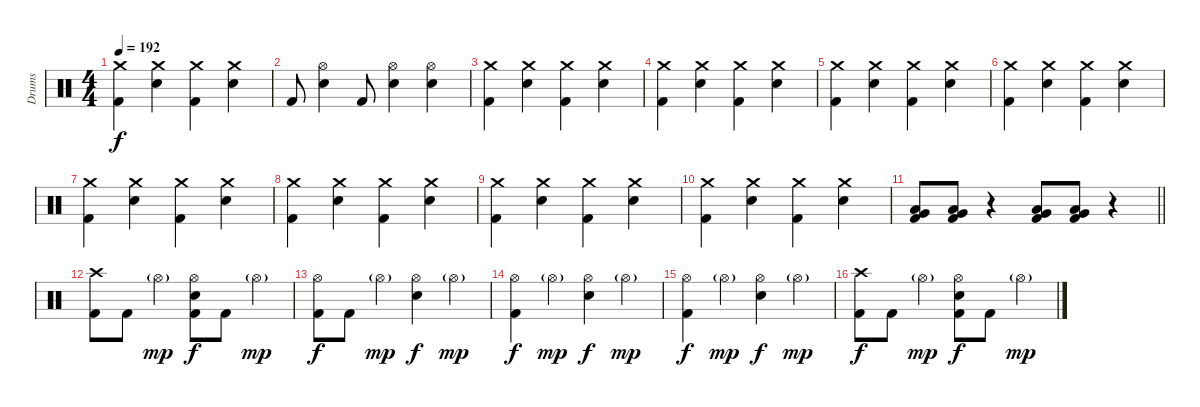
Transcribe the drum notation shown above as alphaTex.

\track ("Drums" "Drums") {instrument percussion}
\staff {score}
\articulation defaults
\ts (4 4)
\tempo 192
\clef neutral
\ks c
("Crash medium (hit)" "Kick (hit) 2").4{dy f} ("Crash medium (hit)" "Electric Snare (hit)").4 ("Crash medium (hit)" "Kick (hit) 2").4 ("Crash medium (hit)" "Electric Snare (hit)").4 |
"Kick (hit) 2".8 ("Hi-Hat (open)" "Electric Snare (hit)").4 "Kick (hit) 2".8 ("Hi-Hat (open)" "Electric Snare (hit)").4 ("Hi-Hat (open)" "Electric Snare (hit)").4 |
("Crash medium (hit)" "Kick (hit) 2").4 ("Crash medium (hit)" "Electric Snare (hit)").4 ("Crash medium (hit)" "Kick (hit) 2").4 ("Crash medium (hit)" "Electric Snare (hit)").4 |
("Crash medium (hit)" "Kick (hit) 2").4 ("Crash medium (hit)" "Electric Snare (hit)").4 ("Crash medium (hit)" "Kick (hit) 2").4 ("Crash medium (hit)" "Electric Snare (hit)").4 |
("Crash medium (hit)" "Kick (hit) 2").4 ("Crash medium (hit)" "Electric Snare (hit)").4 ("Crash medium (hit)" "Kick (hit) 2").4 ("Crash medium (hit)" "Electric Snare (hit)").4 |
("Crash medium (hit)" "Kick (hit) 2").4 ("Crash medium (hit)" "Electric Snare (hit)").4 ("Crash medium (hit)" "Kick (hit) 2").4 ("Crash medium (hit)" "Electric Snare (hit)").4 |
("Crash medium (hit)" "Kick (hit) 2").4 ("Crash medium (hit)" "Electric Snare (hit)").4 ("Crash medium (hit)" "Kick (hit) 2").4 ("Crash medium (hit)" "Electric Snare (hit)").4 |
("Crash medium (hit)" "Kick (hit) 2").4 ("Crash medium (hit)" "Electric Snare (hit)").4 ("Crash medium (hit)" "Kick (hit) 2").4 ("Crash medium (hit)" "Electric Snare (hit)").4 |
("Crash medium (hit)" "Kick (hit) 2").4 ("Crash medium (hit)" "Electric Snare (hit)").4 ("Crash medium (hit)" "Kick (hit) 2").4 ("Crash medium (hit)" "Electric Snare (hit)").4 |
("Crash medium (hit)" "Kick (hit) 2").4 ("Crash medium (hit)" "Electric Snare (hit)").4 ("Crash medium (hit)" "Kick (hit) 2").4 ("Crash medium (hit)" "Electric Snare (hit)").4 |
\barLineRight lightlight
("Very Low Tom (hit)" "Low Floor Tom (hit)" "Kick (hit) 2").8 ("Very Low Tom (hit)" "Low Floor Tom (hit)" "Kick (hit) 2").8 r.4 ("Very Low Tom (hit)" "Low Floor Tom (hit)" "Kick (hit) 2").8 ("Very Low Tom (hit)" "Low Floor Tom (hit)" "Kick (hit) 2").8 r.4 |
("Crash high (hit)" "Kick (hit) 2").8 "Kick (hit) 2".8 "Hi-Hat (open)"{g}.4{dy mp} ("Hi-Hat (open)" "Electric Snare (hit)" "Kick (hit) 2").8{dy f} "Kick (hit) 2".8 "Hi-Hat (open)"{g}.4{dy mp} |
("Hi-Hat (open)" "Kick (hit) 2").8{dy f} "Kick (hit) 2".8 "Hi-Hat (open)"{g}.4{dy mp} ("Hi-Hat (open)" "Electric Snare (hit)").4{dy f} "Hi-Hat (open)"{g}.4{dy mp} |
("Hi-Hat (open)" "Kick (hit) 2").4{dy f} "Hi-Hat (open)"{g}.4{dy mp} ("Hi-Hat (open)" "Electric Snare (hit)").4{dy f} "Hi-Hat (open)"{g}.4{dy mp} |
("Hi-Hat (open)" "Kick (hit) 2").4{dy f} "Hi-Hat (open)"{g}.4{dy mp} ("Hi-Hat (open)" "Electric Snare (hit)").4{dy f} "Hi-Hat (open)"{g}.4{dy mp} |
("Crash high (hit)" "Kick (hit) 2").8{dy f} "Kick (hit) 2".8 "Hi-Hat (open)"{g}.4{dy mp} ("Hi-Hat (open)" "Electric Snare (hit)" "Kick (hit) 2").8{dy f} "Kick (hit) 2".8 "Hi-Hat (open)"{g}.4{dy mp}
